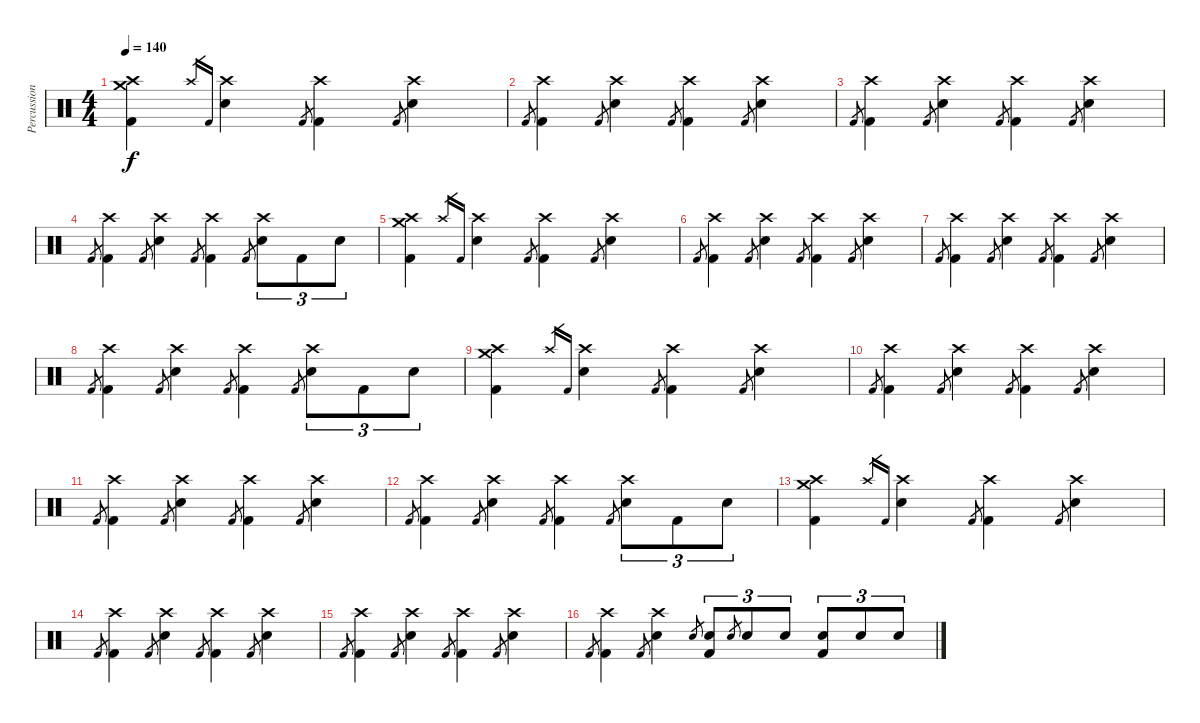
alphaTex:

\track ("Percussion" "Percussion") {instrument percussion}
\staff {score}
\articulation defaults
\ts (4 4)
\tempo 140
\clef neutral
\ks c
("Crash medium (hit)" "Crash high (hit)" "Kick (hit) 2").4{dy f} "Crash high (hit)".16{gr} "Kick (hit) 2".16{gr} ("Crash high (hit)" "Electric Snare (hit)").4 "Kick (hit) 2".8{gr} ("Crash high (hit)" "Kick (hit) 2").4 "Kick (hit) 2".8{gr} ("Crash high (hit)" "Electric Snare (hit)").4 |
"Kick (hit) 2".8{gr} ("Crash high (hit)" "Kick (hit) 2").4 "Kick (hit) 2".8{gr} ("Crash high (hit)" "Electric Snare (hit)").4 "Kick (hit) 2".8{gr} ("Crash high (hit)" "Kick (hit) 2").4 "Kick (hit) 2".8{gr} ("Crash high (hit)" "Electric Snare (hit)").4 |
"Kick (hit) 2".8{gr} ("Crash high (hit)" "Kick (hit) 2").4 "Kick (hit) 2".8{gr} ("Crash high (hit)" "Electric Snare (hit)").4 "Kick (hit) 2".8{gr} ("Crash high (hit)" "Kick (hit) 2").4 "Kick (hit) 2".8{gr} ("Crash high (hit)" "Electric Snare (hit)").4 |
"Kick (hit) 2".8{gr} ("Crash high (hit)" "Kick (hit) 2").4 "Kick (hit) 2".8{gr} ("Crash high (hit)" "Electric Snare (hit)").4 "Kick (hit) 2".8{gr} ("Crash high (hit)" "Kick (hit) 2").4 "Kick (hit) 2".8{gr} ("Crash high (hit)" "Electric Snare (hit)").8{tu (3 2)} "Kick (hit) 2".8{tu (3 2)} "Electric Snare (hit)".8{tu (3 2)} |
("Crash medium (hit)" "Crash high (hit)" "Kick (hit) 2").4 "Crash high (hit)".16{gr} "Kick (hit) 2".16{gr} ("Crash high (hit)" "Electric Snare (hit)").4 "Kick (hit) 2".8{gr} ("Crash high (hit)" "Kick (hit) 2").4 "Kick (hit) 2".8{gr} ("Crash high (hit)" "Electric Snare (hit)").4 |
"Kick (hit) 2".8{gr} ("Crash high (hit)" "Kick (hit) 2").4 "Kick (hit) 2".8{gr} ("Crash high (hit)" "Electric Snare (hit)").4 "Kick (hit) 2".8{gr} ("Crash high (hit)" "Kick (hit) 2").4 "Kick (hit) 2".8{gr} ("Crash high (hit)" "Electric Snare (hit)").4 |
"Kick (hit) 2".8{gr} ("Crash high (hit)" "Kick (hit) 2").4 "Kick (hit) 2".8{gr} ("Crash high (hit)" "Electric Snare (hit)").4 "Kick (hit) 2".8{gr} ("Crash high (hit)" "Kick (hit) 2").4 "Kick (hit) 2".8{gr} ("Crash high (hit)" "Electric Snare (hit)").4 |
"Kick (hit) 2".8{gr} ("Crash high (hit)" "Kick (hit) 2").4 "Kick (hit) 2".8{gr} ("Crash high (hit)" "Electric Snare (hit)").4 "Kick (hit) 2".8{gr} ("Crash high (hit)" "Kick (hit) 2").4 "Kick (hit) 2".8{gr} ("Crash high (hit)" "Electric Snare (hit)").8{tu (3 2)} "Kick (hit) 2".8{tu (3 2)} "Electric Snare (hit)".8{tu (3 2)} |
("Crash medium (hit)" "Crash high (hit)" "Kick (hit) 2").4 "Crash high (hit)".16{gr} "Kick (hit) 2".16{gr} ("Crash high (hit)" "Electric Snare (hit)").4 "Kick (hit) 2".8{gr} ("Crash high (hit)" "Kick (hit) 2").4 "Kick (hit) 2".8{gr} ("Crash high (hit)" "Electric Snare (hit)").4 |
"Kick (hit) 2".8{gr} ("Crash high (hit)" "Kick (hit) 2").4 "Kick (hit) 2".8{gr} ("Crash high (hit)" "Electric Snare (hit)").4 "Kick (hit) 2".8{gr} ("Crash high (hit)" "Kick (hit) 2").4 "Kick (hit) 2".8{gr} ("Crash high (hit)" "Electric Snare (hit)").4 |
"Kick (hit) 2".8{gr} ("Crash high (hit)" "Kick (hit) 2").4 "Kick (hit) 2".8{gr} ("Crash high (hit)" "Electric Snare (hit)").4 "Kick (hit) 2".8{gr} ("Crash high (hit)" "Kick (hit) 2").4 "Kick (hit) 2".8{gr} ("Crash high (hit)" "Electric Snare (hit)").4 |
"Kick (hit) 2".8{gr} ("Crash high (hit)" "Kick (hit) 2").4 "Kick (hit) 2".8{gr} ("Crash high (hit)" "Electric Snare (hit)").4 "Kick (hit) 2".8{gr} ("Crash high (hit)" "Kick (hit) 2").4 "Kick (hit) 2".8{gr} ("Crash high (hit)" "Electric Snare (hit)").8{tu (3 2)} "Kick (hit) 2".8{tu (3 2)} "Electric Snare (hit)".8{tu (3 2)} |
("Crash medium (hit)" "Crash high (hit)" "Kick (hit) 2").4 "Crash high (hit)".16{gr} "Kick (hit) 2".16{gr} ("Crash high (hit)" "Electric Snare (hit)").4 "Kick (hit) 2".8{gr} ("Crash high (hit)" "Kick (hit) 2").4 "Kick (hit) 2".8{gr} ("Crash high (hit)" "Electric Snare (hit)").4 |
"Kick (hit) 2".8{gr} ("Crash high (hit)" "Kick (hit) 2").4 "Kick (hit) 2".8{gr} ("Crash high (hit)" "Electric Snare (hit)").4 "Kick (hit) 2".8{gr} ("Crash high (hit)" "Kick (hit) 2").4 "Kick (hit) 2".8{gr} ("Crash high (hit)" "Electric Snare (hit)").4 |
"Kick (hit) 2".8{gr} ("Crash high (hit)" "Kick (hit) 2").4 "Kick (hit) 2".8{gr} ("Crash high (hit)" "Electric Snare (hit)").4 "Kick (hit) 2".8{gr} ("Crash high (hit)" "Kick (hit) 2").4 "Kick (hit) 2".8{gr} ("Crash high (hit)" "Electric Snare (hit)").4 |
"Kick (hit) 2".8{gr} ("Crash high (hit)" "Kick (hit) 2").4 "Kick (hit) 2".8{gr} ("Crash high (hit)" "Electric Snare (hit)").4 "Electric Snare (hit)".8{gr} ("Electric Snare (hit)" "Kick (hit) 2").8{tu (3 2)} "Electric Snare (hit)".8{gr} "Electric Snare (hit)".8{tu (3 2)} "Electric Snare (hit)".8{tu (3 2)} ("Electric Snare (hit)" "Kick (hit) 2").8{tu (3 2)} "Electric Snare (hit)".8{tu (3 2)} "Electric Snare (hit)".8{tu (3 2)}
